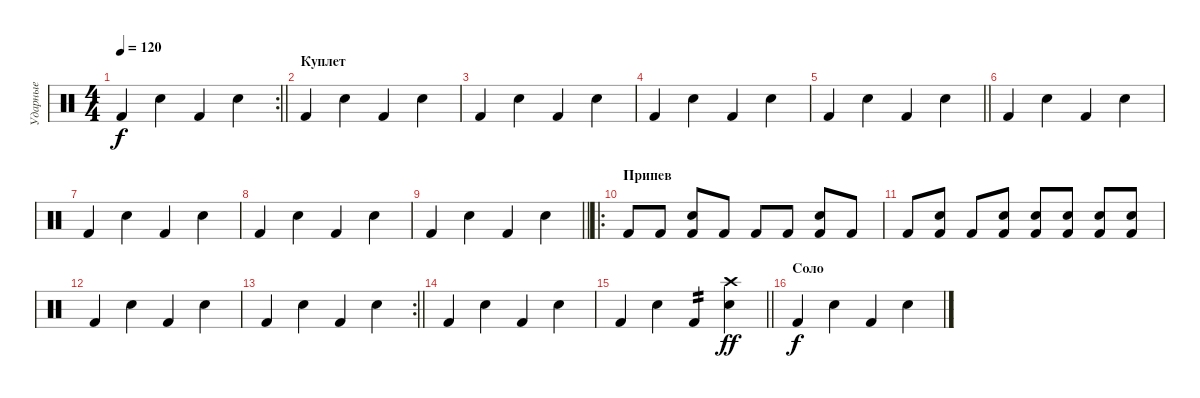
\track ("Ударные" "Ударные") {instrument percussion}
\staff {score}
\articulation defaults
\rc 2
\ts (4 4)
\tempo 120
\clef neutral
\barLineRight lightlight
\ks c "Kick (hit) 2".4{dy f} "Snare (hit) 2".4 "Kick (hit) 2".4 "Snare (hit) 2".4
|
\section ("" "Куплет")
"Kick (hit) 2".4 "Snare (hit) 2".4 "Kick (hit) 2".4 "Snare (hit) 2".4 |
"Kick (hit) 2".4 "Snare (hit) 2".4 "Kick (hit) 2".4 "Snare (hit) 2".4 |
"Kick (hit) 2".4 "Snare (hit) 2".4 "Kick (hit) 2".4 "Snare (hit) 2".4 |
\barLineRight lightlight "Kick (hit) 2".4 "Snare (hit) 2".4 "Kick (hit) 2".4 "Snare (hit) 2".4
|
"Kick (hit) 2".4 "Snare (hit) 2".4 "Kick (hit) 2".4 "Snare (hit) 2".4 |
"Kick (hit) 2".4 "Snare (hit) 2".4 "Kick (hit) 2".4 "Snare (hit) 2".4 |
"Kick (hit) 2".4 "Snare (hit) 2".4 "Kick (hit) 2".4 "Snare (hit) 2".4 |
\barLineRight lightlight "Kick (hit) 2".4 "Snare (hit) 2".4 "Kick (hit) 2".4 "Snare (hit) 2".4
|
\ro
\section ("" "Припев")
"Kick (hit) 2".8 "Kick (hit) 2".8 ("Snare (hit) 2" "Kick (hit) 2").8 "Kick (hit) 2".8 "Kick (hit) 2".8 "Kick (hit) 2".8 ("Snare (hit) 2" "Kick (hit) 2").8 "Kick (hit) 2".8 |
"Kick (hit) 2".8 ("Snare (hit) 2" "Kick (hit) 2").8 "Kick (hit) 2".8 ("Snare (hit) 2" "Kick (hit) 2").8 ("Snare (hit) 2" "Kick (hit) 2").8 ("Snare (hit) 2" "Kick (hit) 2").8 ("Snare (hit) 2" "Kick (hit) 2").8 ("Snare (hit) 2" "Kick (hit) 2").8 |
"Kick (hit) 2".4 "Snare (hit) 2".4 "Kick (hit) 2".4 "Snare (hit) 2".4 |
\rc 2
\barLineRight lightlight "Kick (hit) 2".4 "Snare (hit) 2".4 "Kick (hit) 2".4 "Snare (hit) 2".4
|
"Kick (hit) 2".4 "Snare (hit) 2".4 "Kick (hit) 2".4 "Snare (hit) 2".4 |
\barLineRight lightlight "Kick (hit) 2".4 "Snare (hit) 2".4 "Kick (hit) 2".4{tp 2}
("Crash high (hit)" "Snare (hit) 2").4{dy ff} |
\section ("" "Соло")
"Kick (hit) 2".4{dy f} "Snare (hit) 2".4 "Kick (hit) 2".4 "Snare (hit) 2".4
